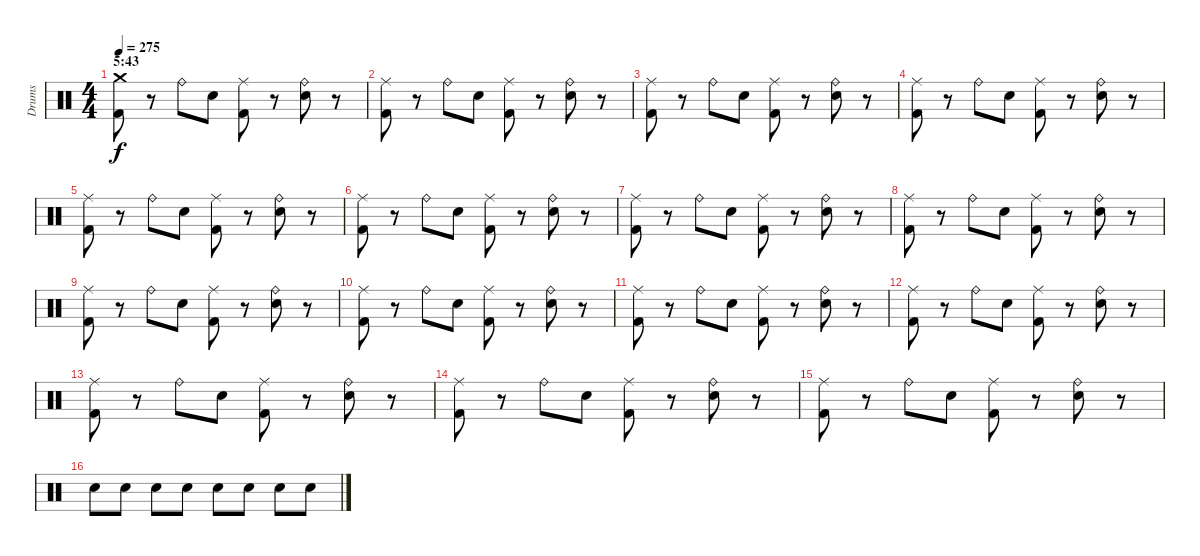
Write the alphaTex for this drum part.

\track ("Drums" "Drums") {instrument percussion}
\staff {score}
\articulation defaults
\ts (4 4)
\section ("" "5:43")
\tempo 275
\clef neutral
\ks c
("Crash medium (hit)" "Kick (hit) 2").8{dy f} r.8 "Ride (bell)".8 "Electric Snare (hit)".8 ("Ride (middle)" "Kick (hit) 2").8 r.8 ("Ride (bell)" "Electric Snare (hit)").8 r.8 |
("Ride (middle)" "Kick (hit) 2").8 r.8 "Ride (bell)".8 "Electric Snare (hit)".8 ("Ride (middle)" "Kick (hit) 2").8 r.8 ("Ride (bell)" "Electric Snare (hit)").8 r.8 |
("Ride (middle)" "Kick (hit) 2").8 r.8 "Ride (bell)".8 "Electric Snare (hit)".8 ("Ride (middle)" "Kick (hit) 2").8 r.8 ("Ride (bell)" "Electric Snare (hit)").8 r.8 |
("Ride (middle)" "Kick (hit) 2").8 r.8 "Ride (bell)".8 "Electric Snare (hit)".8 ("Ride (middle)" "Kick (hit) 2").8 r.8 ("Ride (bell)" "Electric Snare (hit)").8 r.8 |
("Ride (middle)" "Kick (hit) 2").8 r.8 "Ride (bell)".8 "Electric Snare (hit)".8 ("Ride (middle)" "Kick (hit) 2").8 r.8 ("Ride (bell)" "Electric Snare (hit)").8 r.8 |
("Ride (middle)" "Kick (hit) 2").8 r.8 "Ride (bell)".8 "Electric Snare (hit)".8 ("Ride (middle)" "Kick (hit) 2").8 r.8 ("Ride (bell)" "Electric Snare (hit)").8 r.8 |
("Ride (middle)" "Kick (hit) 2").8 r.8 "Ride (bell)".8 "Electric Snare (hit)".8 ("Ride (middle)" "Kick (hit) 2").8 r.8 ("Ride (bell)" "Electric Snare (hit)").8 r.8 |
("Ride (middle)" "Kick (hit) 2").8 r.8 "Ride (bell)".8 "Electric Snare (hit)".8 ("Ride (middle)" "Kick (hit) 2").8 r.8 ("Ride (bell)" "Electric Snare (hit)").8 r.8 |
("Ride (middle)" "Kick (hit) 2").8 r.8 "Ride (bell)".8 "Electric Snare (hit)".8 ("Ride (middle)" "Kick (hit) 2").8 r.8 ("Ride (bell)" "Electric Snare (hit)").8 r.8 |
("Ride (middle)" "Kick (hit) 2").8 r.8 "Ride (bell)".8 "Electric Snare (hit)".8 ("Ride (middle)" "Kick (hit) 2").8 r.8 ("Ride (bell)" "Electric Snare (hit)").8 r.8 |
("Ride (middle)" "Kick (hit) 2").8 r.8 "Ride (bell)".8 "Electric Snare (hit)".8 ("Ride (middle)" "Kick (hit) 2").8 r.8 ("Ride (bell)" "Electric Snare (hit)").8 r.8 |
("Ride (middle)" "Kick (hit) 2").8 r.8 "Ride (bell)".8 "Electric Snare (hit)".8 ("Ride (middle)" "Kick (hit) 2").8 r.8 ("Ride (bell)" "Electric Snare (hit)").8 r.8 |
("Ride (middle)" "Kick (hit) 2").8 r.8 "Ride (bell)".8 "Electric Snare (hit)".8 ("Ride (middle)" "Kick (hit) 2").8 r.8 ("Ride (bell)" "Electric Snare (hit)").8 r.8 |
("Ride (middle)" "Kick (hit) 2").8 r.8 "Ride (bell)".8 "Electric Snare (hit)".8 ("Ride (middle)" "Kick (hit) 2").8 r.8 ("Ride (bell)" "Electric Snare (hit)").8 r.8 |
("Ride (middle)" "Kick (hit) 2").8 r.8 "Ride (bell)".8 "Electric Snare (hit)".8 ("Ride (middle)" "Kick (hit) 2").8 r.8 ("Ride (bell)" "Electric Snare (hit)").8 r.8 |
"Electric Snare (hit)".8 "Electric Snare (hit)".8 "Electric Snare (hit)".8 "Electric Snare (hit)".8 "Electric Snare (hit)".8 "Electric Snare (hit)".8 "Electric Snare (hit)".8 "Electric Snare (hit)".8
